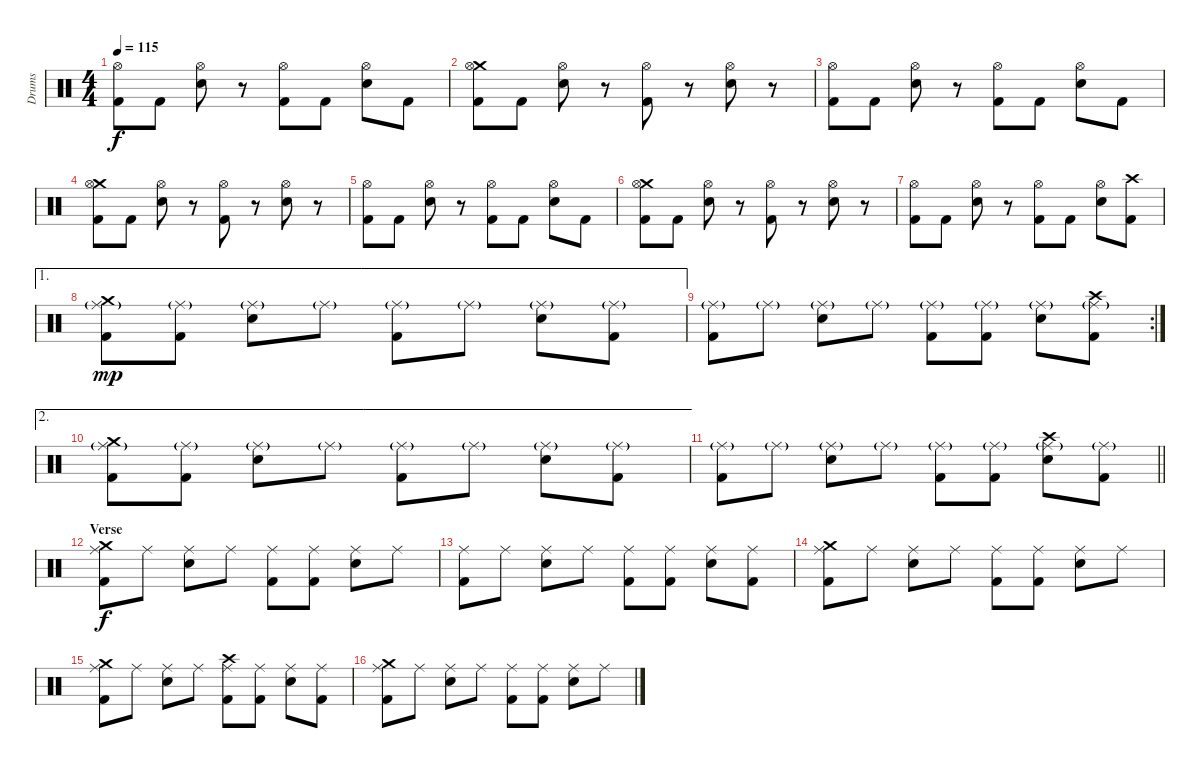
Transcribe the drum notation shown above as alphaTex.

\track ("Drums" "Drums") {instrument percussion}
\staff {score}
\articulation defaults
\ts (4 4)
\tempo 115
\clef neutral
\ks c
("Hi-Hat (open)" "Kick (hit) 2").8{dy f} "Kick (hit) 2".8 ("Hi-Hat (open)" "Snare (hit) 2").8 r.8 ("Hi-Hat (open)" "Kick (hit) 2").8 "Kick (hit) 2".8 ("Hi-Hat (open)" "Snare (hit) 2").8 "Kick (hit) 2".8 |
("Crash medium (hit)" "Hi-Hat (open)" "Kick (hit) 2").8 "Kick (hit) 2".8 ("Hi-Hat (open)" "Snare (hit) 2").8 r.8 ("Hi-Hat (open)" "Kick (hit) 2").8 r.8 ("Hi-Hat (open)" "Snare (hit) 2").8 r.8 |
("Hi-Hat (open)" "Kick (hit) 2").8 "Kick (hit) 2".8 ("Hi-Hat (open)" "Snare (hit) 2").8 r.8 ("Hi-Hat (open)" "Kick (hit) 2").8 "Kick (hit) 2".8 ("Hi-Hat (open)" "Snare (hit) 2").8 "Kick (hit) 2".8 |
("Crash medium (hit)" "Hi-Hat (open)" "Kick (hit) 2").8 "Kick (hit) 2".8 ("Hi-Hat (open)" "Snare (hit) 2").8 r.8 ("Hi-Hat (open)" "Kick (hit) 2").8 r.8 ("Hi-Hat (open)" "Snare (hit) 2").8 r.8 |
("Hi-Hat (open)" "Kick (hit) 2").8 "Kick (hit) 2".8 ("Hi-Hat (open)" "Snare (hit) 2").8 r.8 ("Hi-Hat (open)" "Kick (hit) 2").8 "Kick (hit) 2".8 ("Hi-Hat (open)" "Snare (hit) 2").8 "Kick (hit) 2".8 |
("Crash medium (hit)" "Hi-Hat (open)" "Kick (hit) 2").8 "Kick (hit) 2".8 ("Hi-Hat (open)" "Snare (hit) 2").8 r.8 ("Hi-Hat (open)" "Kick (hit) 2").8 r.8 ("Hi-Hat (open)" "Snare (hit) 2").8 r.8 |
("Hi-Hat (open)" "Kick (hit) 2").8 "Kick (hit) 2".8 ("Hi-Hat (open)" "Snare (hit) 2").8 r.8 ("Hi-Hat (open)" "Kick (hit) 2").8 "Kick (hit) 2".8 ("Hi-Hat (open)" "Snare (hit) 2").8 ("Crash high (hit)" "Kick (hit) 2").8 |
\ae 1
("Crash medium (hit)" "Ride (middle)"{g} "Kick (hit) 2").8{dy mp} ("Ride (middle)"{g} "Kick (hit) 2").8 ("Ride (middle)"{g} "Snare (hit) 2").8 "Ride (middle)"{g}.8 ("Ride (middle)"{g} "Kick (hit) 2").8 "Ride (middle)"{g}.8 ("Ride (middle)"{g} "Snare (hit) 2").8 ("Ride (middle)"{g} "Kick (hit) 2").8 |
\rc 2
("Ride (middle)"{g} "Kick (hit) 2").8 "Ride (middle)"{g}.8 ("Ride (middle)"{g} "Snare (hit) 2").8 "Ride (middle)"{g}.8 ("Ride (middle)"{g} "Kick (hit) 2").8 ("Ride (middle)"{g} "Kick (hit) 2").8 ("Ride (middle)"{g} "Snare (hit) 2").8 ("Crash high (hit)" "Ride (middle)"{g} "Kick (hit) 2").8 |
\ae 2
("Crash medium (hit)" "Ride (middle)"{g} "Kick (hit) 2").8 ("Ride (middle)"{g} "Kick (hit) 2").8 ("Ride (middle)"{g} "Snare (hit) 2").8 "Ride (middle)"{g}.8 ("Ride (middle)"{g} "Kick (hit) 2").8 "Ride (middle)"{g}.8 ("Ride (middle)"{g} "Snare (hit) 2").8 ("Ride (middle)"{g} "Kick (hit) 2").8 |
\barLineRight lightlight
("Ride (middle)"{g} "Kick (hit) 2").8 "Ride (middle)"{g}.8 ("Ride (middle)"{g} "Snare (hit) 2").8 "Ride (middle)"{g}.8 ("Ride (middle)"{g} "Kick (hit) 2").8 ("Ride (middle)"{g} "Kick (hit) 2").8 ("Crash high (hit)" "Ride (middle)"{g} "Snare (hit) 2").8 ("Ride (middle)"{g} "Kick (hit) 2").8 |
\section ("" "Verse")
("Crash medium (hit)" "Ride (middle)" "Kick (hit) 2").8{dy f} "Ride (middle)".8 ("Ride (middle)" "Snare (hit) 2").8 "Ride (middle)".8 ("Ride (middle)" "Kick (hit) 2").8 ("Ride (middle)" "Kick (hit) 2").8 ("Ride (middle)" "Snare (hit) 2").8 "Ride (middle)".8 |
("Ride (middle)" "Kick (hit) 2").8 "Ride (middle)".8 ("Ride (middle)" "Snare (hit) 2").8 "Ride (middle)".8 ("Ride (middle)" "Kick (hit) 2").8 ("Ride (middle)" "Kick (hit) 2").8 ("Ride (middle)" "Snare (hit) 2").8 ("Ride (middle)" "Kick (hit) 2").8 |
("Crash medium (hit)" "Ride (middle)" "Kick (hit) 2").8 "Ride (middle)".8 ("Ride (middle)" "Snare (hit) 2").8 "Ride (middle)".8 ("Ride (middle)" "Kick (hit) 2").8 ("Ride (middle)" "Kick (hit) 2").8 ("Ride (middle)" "Snare (hit) 2").8 "Ride (middle)".8 |
("Crash medium (hit)" "Ride (middle)" "Kick (hit) 2").8 "Ride (middle)".8 ("Ride (middle)" "Snare (hit) 2").8 "Ride (middle)".8 ("Crash high (hit)" "Ride (middle)" "Kick (hit) 2").8 ("Ride (middle)" "Kick (hit) 2").8 ("Ride (middle)" "Snare (hit) 2").8 ("Ride (middle)" "Kick (hit) 2").8 |
("Crash medium (hit)" "Ride (middle)" "Kick (hit) 2").8 "Ride (middle)".8 ("Ride (middle)" "Snare (hit) 2").8 "Ride (middle)".8 ("Ride (middle)" "Kick (hit) 2").8 ("Ride (middle)" "Kick (hit) 2").8 ("Ride (middle)" "Snare (hit) 2").8 "Ride (middle)".8
